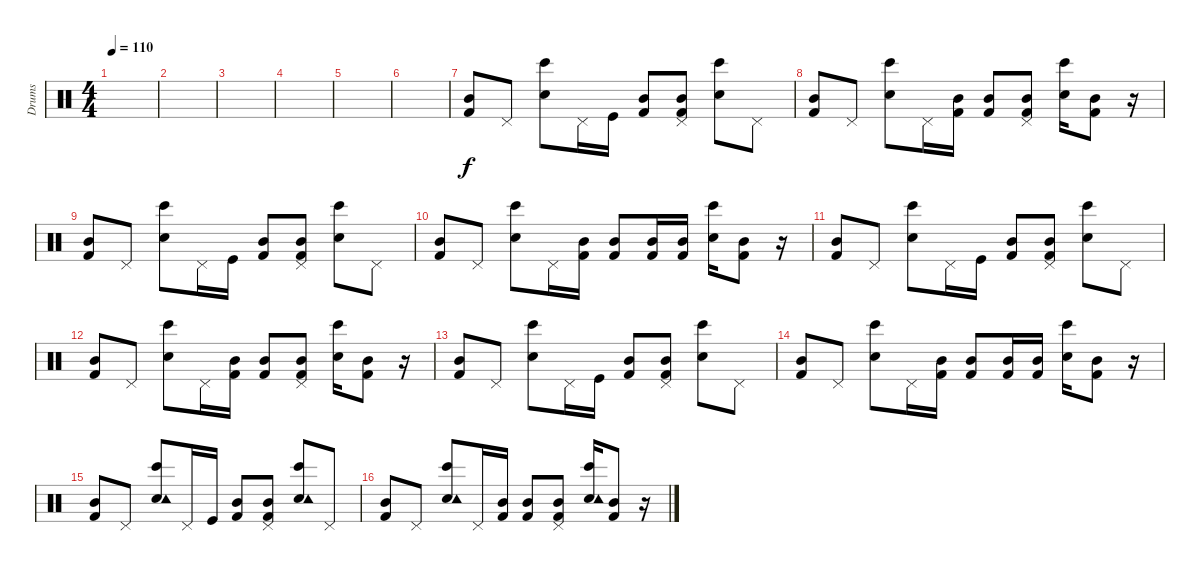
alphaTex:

\track ("Drums" "Drums") {instrument percussion}
\staff {score}
\articulation defaults
\ts (4 4)
\tempo 110
\clef neutral
\ks c
|
|
|
|
|
|
("Mid Tom (hit)" "Kick (hit) 2").8 "Pedal Hi-Hat (hit)".8 ("Electric Snare (hit)" "Bongo High (hit)").8 "Pedal Hi-Hat (hit)".16 "Kick (hit)".16 ("Mid Tom (hit)" "Kick (hit) 2").8 ("Pedal Hi-Hat (hit)" "Mid Tom (hit)" "Kick (hit) 2").8 ("Electric Snare (hit)" "Bongo High (hit)").8 "Pedal Hi-Hat (hit)".8 |
("Mid Tom (hit)" "Kick (hit) 2").8 "Pedal Hi-Hat (hit)".8 ("Electric Snare (hit)" "Bongo High (hit)").8 "Pedal Hi-Hat (hit)".16 ("Mid Tom (hit)" "Kick (hit) 2").16 ("Mid Tom (hit)" "Kick (hit) 2").8 ("Pedal Hi-Hat (hit)" "Mid Tom (hit)" "Kick (hit) 2").8 ("Electric Snare (hit)" "Bongo High (hit)").16 ("Mid Tom (hit)" "Kick (hit) 2").8 r.16 |
("Mid Tom (hit)" "Kick (hit) 2").8 "Pedal Hi-Hat (hit)".8 ("Electric Snare (hit)" "Bongo High (hit)").8 "Pedal Hi-Hat (hit)".16 "Kick (hit)".16 ("Mid Tom (hit)" "Kick (hit) 2").8 ("Pedal Hi-Hat (hit)" "Mid Tom (hit)" "Kick (hit) 2").8 ("Electric Snare (hit)" "Bongo High (hit)").8 "Pedal Hi-Hat (hit)".8 |
("Mid Tom (hit)" "Kick (hit) 2").8 "Pedal Hi-Hat (hit)".8 ("Electric Snare (hit)" "Bongo High (hit)").8 "Pedal Hi-Hat (hit)".16 ("Mid Tom (hit)" "Kick (hit) 2").16 ("Mid Tom (hit)" "Kick (hit) 2").8 ("Mid Tom (hit)" "Kick (hit) 2").16 ("Mid Tom (hit)" "Kick (hit) 2").16 ("Electric Snare (hit)" "Bongo High (hit)").16 ("Mid Tom (hit)" "Kick (hit) 2").8 r.16 |
("Mid Tom (hit)" "Kick (hit) 2").8 "Pedal Hi-Hat (hit)".8 ("Electric Snare (hit)" "Bongo High (hit)").8 "Pedal Hi-Hat (hit)".16 "Kick (hit)".16 ("Mid Tom (hit)" "Kick (hit) 2").8 ("Pedal Hi-Hat (hit)" "Mid Tom (hit)" "Kick (hit) 2").8 ("Electric Snare (hit)" "Bongo High (hit)").8 "Pedal Hi-Hat (hit)".8 |
("Mid Tom (hit)" "Kick (hit) 2").8 "Pedal Hi-Hat (hit)".8 ("Electric Snare (hit)" "Bongo High (hit)").8 "Pedal Hi-Hat (hit)".16 ("Mid Tom (hit)" "Kick (hit) 2").16 ("Mid Tom (hit)" "Kick (hit) 2").8 ("Pedal Hi-Hat (hit)" "Mid Tom (hit)" "Kick (hit) 2").8 ("Electric Snare (hit)" "Bongo High (hit)").16 ("Mid Tom (hit)" "Kick (hit) 2").8 r.16 |
("Mid Tom (hit)" "Kick (hit) 2").8 "Pedal Hi-Hat (hit)".8 ("Electric Snare (hit)" "Bongo High (hit)").8 "Pedal Hi-Hat (hit)".16 "Kick (hit)".16 ("Mid Tom (hit)" "Kick (hit) 2").8 ("Pedal Hi-Hat (hit)" "Mid Tom (hit)" "Kick (hit) 2").8 ("Electric Snare (hit)" "Bongo High (hit)").8 "Pedal Hi-Hat (hit)".8 |
("Mid Tom (hit)" "Kick (hit) 2").8 "Pedal Hi-Hat (hit)".8 ("Electric Snare (hit)" "Bongo High (hit)").8 "Pedal Hi-Hat (hit)".16 ("Mid Tom (hit)" "Kick (hit) 2").16 ("Mid Tom (hit)" "Kick (hit) 2").8 ("Mid Tom (hit)" "Kick (hit) 2").16 ("Mid Tom (hit)" "Kick (hit) 2").16 ("Electric Snare (hit)" "Bongo High (hit)").16 ("Mid Tom (hit)" "Kick (hit) 2").8 r.16 |
("Mid Tom (hit)" "Kick (hit) 2").8 "Pedal Hi-Hat (hit)".8 ("Electric Snare (hit)" "Bongo High (hit)" "Tambourine (hit)").8 "Pedal Hi-Hat (hit)".16 "Kick (hit)".16 ("Mid Tom (hit)" "Kick (hit) 2").8 ("Pedal Hi-Hat (hit)" "Mid Tom (hit)" "Kick (hit) 2").8 ("Electric Snare (hit)" "Bongo High (hit)" "Tambourine (hit)").8 "Pedal Hi-Hat (hit)".8 |
("Mid Tom (hit)" "Kick (hit) 2").8 "Pedal Hi-Hat (hit)".8 ("Electric Snare (hit)" "Bongo High (hit)" "Tambourine (hit)").8 "Pedal Hi-Hat (hit)".16 ("Mid Tom (hit)" "Kick (hit) 2").16 ("Mid Tom (hit)" "Kick (hit) 2").8 ("Pedal Hi-Hat (hit)" "Mid Tom (hit)" "Kick (hit) 2").8 ("Electric Snare (hit)" "Bongo High (hit)" "Tambourine (hit)").16 ("Mid Tom (hit)" "Kick (hit) 2").8 r.16
